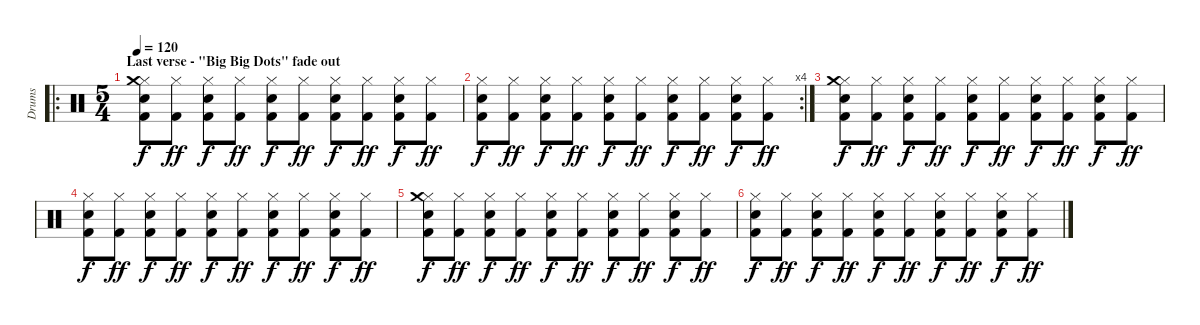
\track ("Drums" "Drums") {instrument percussion}
\staff {score}
\articulation defaults
\ro
\ts (5 4)
\section ("" "Last verse - \"Big Big Dots\" fade out")
\tempo 120
\clef neutral
\ks c
("Hi-Hat (closed)" "Crash medium (hit)" "Snare (hit) 2" "Kick (hit) 2").8{dy f} ("Hi-Hat (closed)" "Kick (hit) 2").8{dy ff} ("Hi-Hat (closed)" "Snare (hit) 2" "Kick (hit) 2").8{dy f} ("Hi-Hat (closed)" "Kick (hit) 2").8{dy ff} ("Hi-Hat (closed)" "Snare (hit) 2" "Kick (hit) 2").8{dy f} ("Hi-Hat (closed)" "Kick (hit) 2").8{dy ff} ("Hi-Hat (closed)" "Snare (hit) 2" "Kick (hit) 2").8{dy f} ("Hi-Hat (closed)" "Kick (hit) 2").8{dy ff} ("Hi-Hat (closed)" "Snare (hit) 2" "Kick (hit) 2").8{dy f} ("Hi-Hat (closed)" "Kick (hit) 2").8{dy ff} |
\rc 4
("Hi-Hat (closed)" "Snare (hit) 2" "Kick (hit) 2").8{dy f} ("Hi-Hat (closed)" "Kick (hit) 2").8{dy ff} ("Hi-Hat (closed)" "Snare (hit) 2" "Kick (hit) 2").8{dy f} ("Hi-Hat (closed)" "Kick (hit) 2").8{dy ff} ("Hi-Hat (closed)" "Snare (hit) 2" "Kick (hit) 2").8{dy f} ("Hi-Hat (closed)" "Kick (hit) 2").8{dy ff} ("Hi-Hat (closed)" "Snare (hit) 2" "Kick (hit) 2").8{dy f} ("Hi-Hat (closed)" "Kick (hit) 2").8{dy ff} ("Hi-Hat (closed)" "Snare (hit) 2" "Kick (hit) 2").8{dy f} ("Hi-Hat (closed)" "Kick (hit) 2").8{dy ff} |
("Hi-Hat (closed)" "Crash medium (hit)" "Snare (hit) 2" "Kick (hit) 2").8{dy f volume 0} ("Hi-Hat (closed)" "Kick (hit) 2").8{dy ff} ("Hi-Hat (closed)" "Snare (hit) 2" "Kick (hit) 2").8{dy f} ("Hi-Hat (closed)" "Kick (hit) 2").8{dy ff} ("Hi-Hat (closed)" "Snare (hit) 2" "Kick (hit) 2").8{dy f} ("Hi-Hat (closed)" "Kick (hit) 2").8{dy ff} ("Hi-Hat (closed)" "Snare (hit) 2" "Kick (hit) 2").8{dy f} ("Hi-Hat (closed)" "Kick (hit) 2").8{dy ff} ("Hi-Hat (closed)" "Snare (hit) 2" "Kick (hit) 2").8{dy f} ("Hi-Hat (closed)" "Kick (hit) 2").8{dy ff} |
("Hi-Hat (closed)" "Snare (hit) 2" "Kick (hit) 2").8{dy f} ("Hi-Hat (closed)" "Kick (hit) 2").8{dy ff} ("Hi-Hat (closed)" "Snare (hit) 2" "Kick (hit) 2").8{dy f} ("Hi-Hat (closed)" "Kick (hit) 2").8{dy ff} ("Hi-Hat (closed)" "Snare (hit) 2" "Kick (hit) 2").8{dy f} ("Hi-Hat (closed)" "Kick (hit) 2").8{dy ff} ("Hi-Hat (closed)" "Snare (hit) 2" "Kick (hit) 2").8{dy f} ("Hi-Hat (closed)" "Kick (hit) 2").8{dy ff} ("Hi-Hat (closed)" "Snare (hit) 2" "Kick (hit) 2").8{dy f} ("Hi-Hat (closed)" "Kick (hit) 2").8{dy ff} |
("Hi-Hat (closed)" "Crash medium (hit)" "Snare (hit) 2" "Kick (hit) 2").8{dy f} ("Hi-Hat (closed)" "Kick (hit) 2").8{dy ff} ("Hi-Hat (closed)" "Snare (hit) 2" "Kick (hit) 2").8{dy f} ("Hi-Hat (closed)" "Kick (hit) 2").8{dy ff} ("Hi-Hat (closed)" "Snare (hit) 2" "Kick (hit) 2").8{dy f} ("Hi-Hat (closed)" "Kick (hit) 2").8{dy ff} ("Hi-Hat (closed)" "Snare (hit) 2" "Kick (hit) 2").8{dy f} ("Hi-Hat (closed)" "Kick (hit) 2").8{dy ff} ("Hi-Hat (closed)" "Snare (hit) 2" "Kick (hit) 2").8{dy f} ("Hi-Hat (closed)" "Kick (hit) 2").8{dy ff} |
("Hi-Hat (closed)" "Snare (hit) 2" "Kick (hit) 2").8{dy f} ("Hi-Hat (closed)" "Kick (hit) 2").8{dy ff} ("Hi-Hat (closed)" "Snare (hit) 2" "Kick (hit) 2").8{dy f} ("Hi-Hat (closed)" "Kick (hit) 2").8{dy ff} ("Hi-Hat (closed)" "Snare (hit) 2" "Kick (hit) 2").8{dy f} ("Hi-Hat (closed)" "Kick (hit) 2").8{dy ff} ("Hi-Hat (closed)" "Snare (hit) 2" "Kick (hit) 2").8{dy f} ("Hi-Hat (closed)" "Kick (hit) 2").8{dy ff} ("Hi-Hat (closed)" "Snare (hit) 2" "Kick (hit) 2").8{dy f} ("Hi-Hat (closed)" "Kick (hit) 2").8{dy ff}
